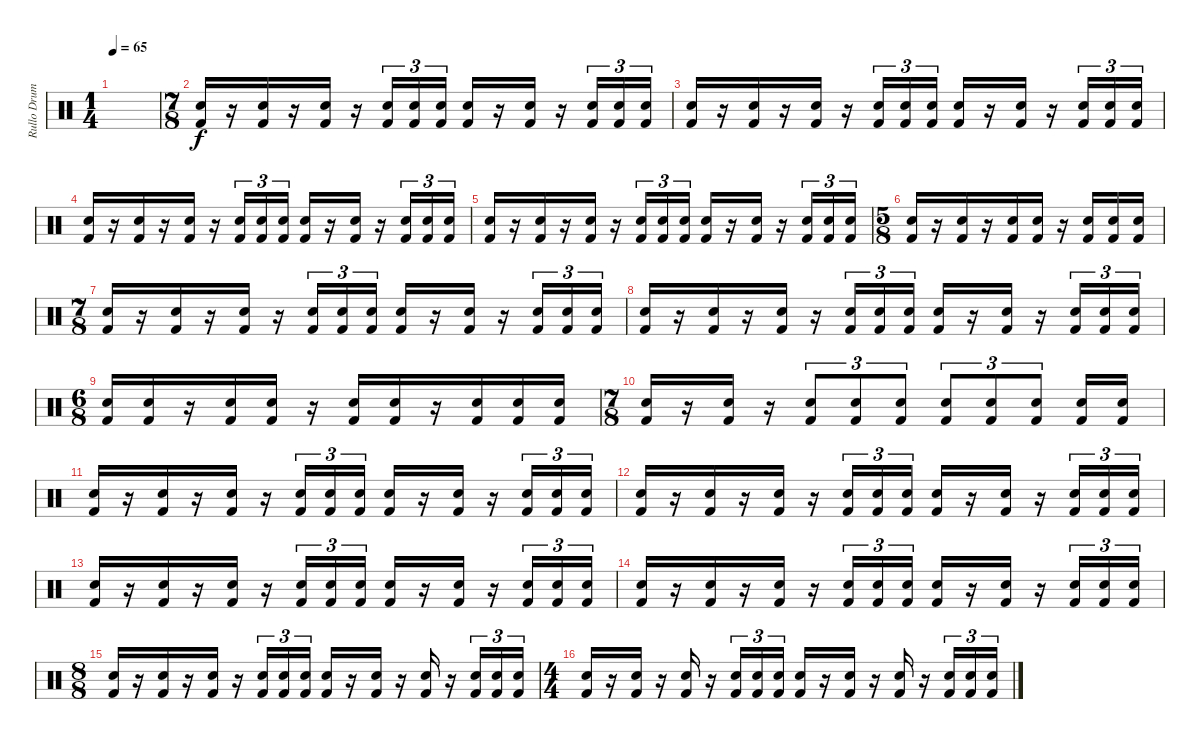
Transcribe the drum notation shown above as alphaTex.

\track ("Rullo Drums" "Rullo Drum") {instrument percussion}
\staff {score}
\articulation defaults
\ts (1 4)
\tempo 65
\clef neutral
\ks c
|
\ts (7 8)
("Kick (hit) 2" "Snare (hit) 2").16 r.16 ("Kick (hit) 2" "Snare (hit) 2").16 r.16 ("Kick (hit) 2" "Snare (hit) 2").16 r.16 ("Kick (hit) 2" "Snare (hit) 2").16{tu (3 2)} ("Kick (hit) 2" "Snare (hit) 2").16{tu (3 2)} ("Kick (hit) 2" "Snare (hit) 2").16{tu (3 2)} ("Kick (hit) 2" "Snare (hit) 2").16 r.16 ("Kick (hit) 2" "Snare (hit) 2").16 r.16 ("Kick (hit) 2" "Snare (hit) 2").16{tu (3 2)} ("Kick (hit) 2" "Snare (hit) 2").16{tu (3 2)} ("Kick (hit) 2" "Snare (hit) 2").16{tu (3 2)} |
("Kick (hit) 2" "Snare (hit) 2").16 r.16 ("Kick (hit) 2" "Snare (hit) 2").16 r.16 ("Kick (hit) 2" "Snare (hit) 2").16 r.16 ("Kick (hit) 2" "Snare (hit) 2").16{tu (3 2)} ("Kick (hit) 2" "Snare (hit) 2").16{tu (3 2)} ("Kick (hit) 2" "Snare (hit) 2").16{tu (3 2)} ("Kick (hit) 2" "Snare (hit) 2").16 r.16 ("Kick (hit) 2" "Snare (hit) 2").16 r.16 ("Kick (hit) 2" "Snare (hit) 2").16{tu (3 2)} ("Kick (hit) 2" "Snare (hit) 2").16{tu (3 2)} ("Kick (hit) 2" "Snare (hit) 2").16{tu (3 2)} |
("Kick (hit) 2" "Snare (hit) 2").16 r.16 ("Kick (hit) 2" "Snare (hit) 2").16 r.16 ("Kick (hit) 2" "Snare (hit) 2").16 r.16 ("Kick (hit) 2" "Snare (hit) 2").16{tu (3 2)} ("Kick (hit) 2" "Snare (hit) 2").16{tu (3 2)} ("Kick (hit) 2" "Snare (hit) 2").16{tu (3 2)} ("Kick (hit) 2" "Snare (hit) 2").16 r.16 ("Kick (hit) 2" "Snare (hit) 2").16 r.16 ("Kick (hit) 2" "Snare (hit) 2").16{tu (3 2)} ("Kick (hit) 2" "Snare (hit) 2").16{tu (3 2)} ("Kick (hit) 2" "Snare (hit) 2").16{tu (3 2)} |
("Kick (hit) 2" "Snare (hit) 2").16 r.16 ("Kick (hit) 2" "Snare (hit) 2").16 r.16 ("Kick (hit) 2" "Snare (hit) 2").16 r.16 ("Kick (hit) 2" "Snare (hit) 2").16{tu (3 2)} ("Kick (hit) 2" "Snare (hit) 2").16{tu (3 2)} ("Kick (hit) 2" "Snare (hit) 2").16{tu (3 2)} ("Kick (hit) 2" "Snare (hit) 2").16 r.16 ("Kick (hit) 2" "Snare (hit) 2").16 r.16 ("Kick (hit) 2" "Snare (hit) 2").16{tu (3 2)} ("Kick (hit) 2" "Snare (hit) 2").16{tu (3 2)} ("Kick (hit) 2" "Snare (hit) 2").16{tu (3 2)} |
\ts (5 8)
("Kick (hit) 2" "Snare (hit) 2").16 r.16 ("Kick (hit) 2" "Snare (hit) 2").16 r.16 ("Kick (hit) 2" "Snare (hit) 2").16 ("Kick (hit) 2" "Snare (hit) 2").16 r.16 ("Kick (hit) 2" "Snare (hit) 2").16 ("Kick (hit) 2" "Snare (hit) 2").16 ("Kick (hit) 2" "Snare (hit) 2").16 |
\ts (7 8)
("Kick (hit) 2" "Snare (hit) 2").16 r.16 ("Kick (hit) 2" "Snare (hit) 2").16 r.16 ("Kick (hit) 2" "Snare (hit) 2").16 r.16 ("Kick (hit) 2" "Snare (hit) 2").16{tu (3 2)} ("Kick (hit) 2" "Snare (hit) 2").16{tu (3 2)} ("Kick (hit) 2" "Snare (hit) 2").16{tu (3 2)} ("Kick (hit) 2" "Snare (hit) 2").16 r.16 ("Kick (hit) 2" "Snare (hit) 2").16 r.16 ("Kick (hit) 2" "Snare (hit) 2").16{tu (3 2)} ("Kick (hit) 2" "Snare (hit) 2").16{tu (3 2)} ("Kick (hit) 2" "Snare (hit) 2").16{tu (3 2)} |
("Kick (hit) 2" "Snare (hit) 2").16 r.16 ("Kick (hit) 2" "Snare (hit) 2").16 r.16 ("Kick (hit) 2" "Snare (hit) 2").16 r.16 ("Kick (hit) 2" "Snare (hit) 2").16{tu (3 2)} ("Kick (hit) 2" "Snare (hit) 2").16{tu (3 2)} ("Kick (hit) 2" "Snare (hit) 2").16{tu (3 2)} ("Kick (hit) 2" "Snare (hit) 2").16 r.16 ("Kick (hit) 2" "Snare (hit) 2").16 r.16 ("Kick (hit) 2" "Snare (hit) 2").16{tu (3 2)} ("Kick (hit) 2" "Snare (hit) 2").16{tu (3 2)} ("Kick (hit) 2" "Snare (hit) 2").16{tu (3 2)} |
\ts (6 8)
("Kick (hit) 2" "Snare (hit) 2").16 ("Kick (hit) 2" "Snare (hit) 2").16 r.16 ("Kick (hit) 2" "Snare (hit) 2").16 ("Kick (hit) 2" "Snare (hit) 2").16 r.16 ("Kick (hit) 2" "Snare (hit) 2").16 ("Kick (hit) 2" "Snare (hit) 2").16 r.16 ("Kick (hit) 2" "Snare (hit) 2").16 ("Kick (hit) 2" "Snare (hit) 2").16 ("Kick (hit) 2" "Snare (hit) 2").16 |
\ts (7 8)
("Kick (hit) 2" "Snare (hit) 2").16 r.16 ("Kick (hit) 2" "Snare (hit) 2").16 r.16 ("Kick (hit) 2" "Snare (hit) 2").8{tu (3 2)} ("Kick (hit) 2" "Snare (hit) 2").8{tu (3 2)} ("Kick (hit) 2" "Snare (hit) 2").8{tu (3 2)} ("Kick (hit) 2" "Snare (hit) 2").8{tu (3 2)} ("Kick (hit) 2" "Snare (hit) 2").8{tu (3 2)} ("Kick (hit) 2" "Snare (hit) 2").8{tu (3 2)} ("Kick (hit) 2" "Snare (hit) 2").16 ("Kick (hit) 2" "Snare (hit) 2").16 |
("Kick (hit) 2" "Snare (hit) 2").16 r.16 ("Kick (hit) 2" "Snare (hit) 2").16 r.16 ("Kick (hit) 2" "Snare (hit) 2").16 r.16 ("Kick (hit) 2" "Snare (hit) 2").16{tu (3 2)} ("Kick (hit) 2" "Snare (hit) 2").16{tu (3 2)} ("Kick (hit) 2" "Snare (hit) 2").16{tu (3 2)} ("Kick (hit) 2" "Snare (hit) 2").16 r.16 ("Kick (hit) 2" "Snare (hit) 2").16 r.16 ("Kick (hit) 2" "Snare (hit) 2").16{tu (3 2)} ("Kick (hit) 2" "Snare (hit) 2").16{tu (3 2)} ("Kick (hit) 2" "Snare (hit) 2").16{tu (3 2)} |
("Kick (hit) 2" "Snare (hit) 2").16 r.16 ("Kick (hit) 2" "Snare (hit) 2").16 r.16 ("Kick (hit) 2" "Snare (hit) 2").16 r.16 ("Kick (hit) 2" "Snare (hit) 2").16{tu (3 2)} ("Kick (hit) 2" "Snare (hit) 2").16{tu (3 2)} ("Kick (hit) 2" "Snare (hit) 2").16{tu (3 2)} ("Kick (hit) 2" "Snare (hit) 2").16 r.16 ("Kick (hit) 2" "Snare (hit) 2").16 r.16 ("Kick (hit) 2" "Snare (hit) 2").16{tu (3 2)} ("Kick (hit) 2" "Snare (hit) 2").16{tu (3 2)} ("Kick (hit) 2" "Snare (hit) 2").16{tu (3 2)} |
("Kick (hit) 2" "Snare (hit) 2").16 r.16 ("Kick (hit) 2" "Snare (hit) 2").16 r.16 ("Kick (hit) 2" "Snare (hit) 2").16 r.16 ("Kick (hit) 2" "Snare (hit) 2").16{tu (3 2)} ("Kick (hit) 2" "Snare (hit) 2").16{tu (3 2)} ("Kick (hit) 2" "Snare (hit) 2").16{tu (3 2)} ("Kick (hit) 2" "Snare (hit) 2").16 r.16 ("Kick (hit) 2" "Snare (hit) 2").16 r.16 ("Kick (hit) 2" "Snare (hit) 2").16{tu (3 2)} ("Kick (hit) 2" "Snare (hit) 2").16{tu (3 2)} ("Kick (hit) 2" "Snare (hit) 2").16{tu (3 2)} |
("Kick (hit) 2" "Snare (hit) 2").16 r.16 ("Kick (hit) 2" "Snare (hit) 2").16 r.16 ("Kick (hit) 2" "Snare (hit) 2").16 r.16 ("Kick (hit) 2" "Snare (hit) 2").16{tu (3 2)} ("Kick (hit) 2" "Snare (hit) 2").16{tu (3 2)} ("Kick (hit) 2" "Snare (hit) 2").16{tu (3 2)} ("Kick (hit) 2" "Snare (hit) 2").16 r.16 ("Kick (hit) 2" "Snare (hit) 2").16 r.16 ("Kick (hit) 2" "Snare (hit) 2").16{tu (3 2)} ("Kick (hit) 2" "Snare (hit) 2").16{tu (3 2)} ("Kick (hit) 2" "Snare (hit) 2").16{tu (3 2)} |
\ts (8 8)
("Kick (hit) 2" "Snare (hit) 2").16 r.16 ("Kick (hit) 2" "Snare (hit) 2").16 r.16 ("Kick (hit) 2" "Snare (hit) 2").16 r.16 ("Kick (hit) 2" "Snare (hit) 2").16{tu (3 2)} ("Kick (hit) 2" "Snare (hit) 2").16{tu (3 2)} ("Kick (hit) 2" "Snare (hit) 2").16{tu (3 2)} ("Kick (hit) 2" "Snare (hit) 2").16 r.16 ("Kick (hit) 2" "Snare (hit) 2").16 r.16 ("Kick (hit) 2" "Snare (hit) 2").16 r.16 ("Kick (hit) 2" "Snare (hit) 2").16{tu (3 2)} ("Kick (hit) 2" "Snare (hit) 2").16{tu (3 2)} ("Kick (hit) 2" "Snare (hit) 2").16{tu (3 2)} |
\ts (4 4)
("Kick (hit) 2" "Snare (hit) 2").16 r.16 ("Kick (hit) 2" "Snare (hit) 2").16 r.16 ("Kick (hit) 2" "Snare (hit) 2").16 r.16 ("Kick (hit) 2" "Snare (hit) 2").16{tu (3 2)} ("Kick (hit) 2" "Snare (hit) 2").16{tu (3 2)} ("Kick (hit) 2" "Snare (hit) 2").16{tu (3 2)} ("Kick (hit) 2" "Snare (hit) 2").16 r.16 ("Kick (hit) 2" "Snare (hit) 2").16 r.16 ("Kick (hit) 2" "Snare (hit) 2").16 r.16 ("Kick (hit) 2" "Snare (hit) 2").16{tu (3 2)} ("Kick (hit) 2" "Snare (hit) 2").16{tu (3 2)} ("Kick (hit) 2" "Snare (hit) 2").16{tu (3 2)}
